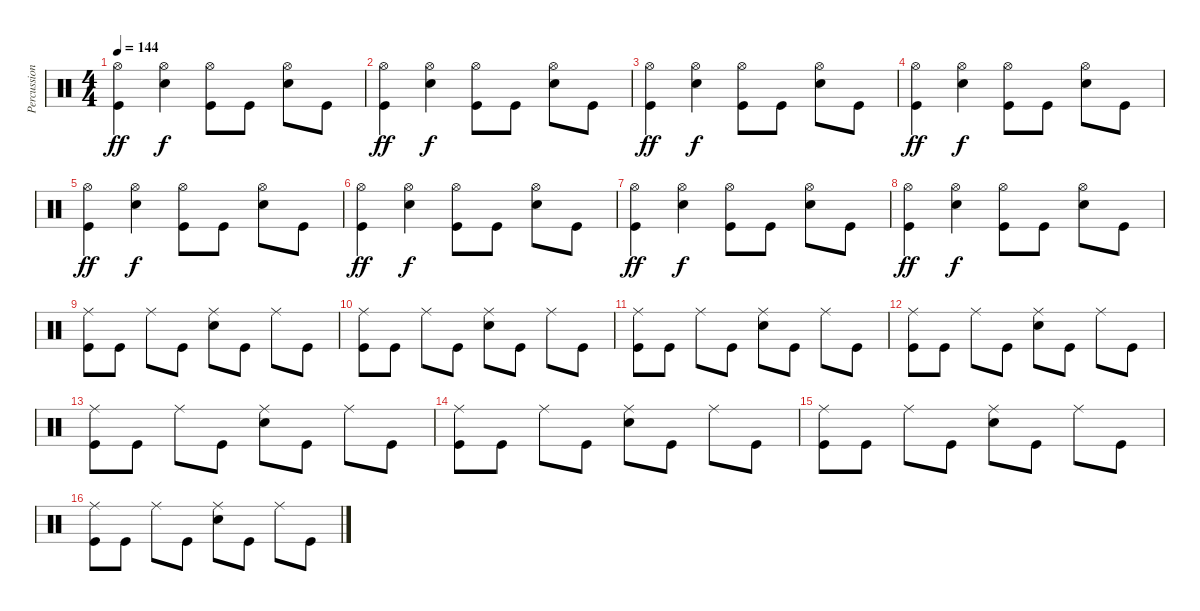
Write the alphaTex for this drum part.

\track ("Percussion" "Percussion") {instrument percussion}
\staff {score}
\articulation defaults
\ts (4 4)
\tempo 144
\clef neutral
\ks c
("Hi-Hat (open)" "Kick (hit)").4{dy ff} ("Hi-Hat (open)" "Snare (hit) 2").4{dy f} ("Hi-Hat (open)" "Kick (hit)").8 "Kick (hit)".8 ("Hi-Hat (open)" "Snare (hit) 2").8 "Kick (hit)".8 |
("Hi-Hat (open)" "Kick (hit)").4{dy ff} ("Hi-Hat (open)" "Snare (hit) 2").4{dy f} ("Hi-Hat (open)" "Kick (hit)").8 "Kick (hit)".8 ("Hi-Hat (open)" "Snare (hit) 2").8 "Kick (hit)".8 |
("Hi-Hat (open)" "Kick (hit)").4{dy ff} ("Hi-Hat (open)" "Snare (hit) 2").4{dy f} ("Hi-Hat (open)" "Kick (hit)").8 "Kick (hit)".8 ("Hi-Hat (open)" "Snare (hit) 2").8 "Kick (hit)".8 |
("Hi-Hat (open)" "Kick (hit)").4{dy ff} ("Hi-Hat (open)" "Snare (hit) 2").4{dy f} ("Hi-Hat (open)" "Kick (hit)").8 "Kick (hit)".8 ("Hi-Hat (open)" "Snare (hit) 2").8 "Kick (hit)".8 |
("Hi-Hat (open)" "Kick (hit)").4{dy ff} ("Hi-Hat (open)" "Snare (hit) 2").4{dy f} ("Hi-Hat (open)" "Kick (hit)").8 "Kick (hit)".8 ("Hi-Hat (open)" "Snare (hit) 2").8 "Kick (hit)".8 |
("Hi-Hat (open)" "Kick (hit)").4{dy ff} ("Hi-Hat (open)" "Snare (hit) 2").4{dy f} ("Hi-Hat (open)" "Kick (hit)").8 "Kick (hit)".8 ("Hi-Hat (open)" "Snare (hit) 2").8 "Kick (hit)".8 |
("Hi-Hat (open)" "Kick (hit)").4{dy ff} ("Hi-Hat (open)" "Snare (hit) 2").4{dy f} ("Hi-Hat (open)" "Kick (hit)").8 "Kick (hit)".8 ("Hi-Hat (open)" "Snare (hit) 2").8 "Kick (hit)".8 |
("Hi-Hat (open)" "Kick (hit)").4{dy ff} ("Hi-Hat (open)" "Snare (hit) 2").4{dy f} ("Hi-Hat (open)" "Kick (hit)").8 "Kick (hit)".8 ("Hi-Hat (open)" "Snare (hit) 2").8 "Kick (hit)".8 |
("Ride (middle)" "Kick (hit)").8 "Kick (hit)".8 "Ride (middle)".8 "Kick (hit)".8 ("Ride (middle)" "Snare (hit) 2").8 "Kick (hit)".8 "Ride (middle)".8 "Kick (hit)".8 |
("Ride (middle)" "Kick (hit)").8 "Kick (hit)".8 "Ride (middle)".8 "Kick (hit)".8 ("Ride (middle)" "Snare (hit) 2").8 "Kick (hit)".8 "Ride (middle)".8 "Kick (hit)".8 |
("Ride (middle)" "Kick (hit)").8 "Kick (hit)".8 "Ride (middle)".8 "Kick (hit)".8 ("Ride (middle)" "Snare (hit) 2").8 "Kick (hit)".8 "Ride (middle)".8 "Kick (hit)".8 |
("Ride (middle)" "Kick (hit)").8 "Kick (hit)".8 "Ride (middle)".8 "Kick (hit)".8 ("Ride (middle)" "Snare (hit) 2").8 "Kick (hit)".8 "Ride (middle)".8 "Kick (hit)".8 |
("Ride (middle)" "Kick (hit)").8 "Kick (hit)".8 "Ride (middle)".8 "Kick (hit)".8 ("Ride (middle)" "Snare (hit) 2").8 "Kick (hit)".8 "Ride (middle)".8 "Kick (hit)".8 |
("Ride (middle)" "Kick (hit)").8 "Kick (hit)".8 "Ride (middle)".8 "Kick (hit)".8 ("Ride (middle)" "Snare (hit) 2").8 "Kick (hit)".8 "Ride (middle)".8 "Kick (hit)".8 |
("Ride (middle)" "Kick (hit)").8 "Kick (hit)".8 "Ride (middle)".8 "Kick (hit)".8 ("Ride (middle)" "Snare (hit) 2").8 "Kick (hit)".8 "Ride (middle)".8 "Kick (hit)".8 |
("Ride (middle)" "Kick (hit)").8 "Kick (hit)".8 "Ride (middle)".8 "Kick (hit)".8 ("Ride (middle)" "Snare (hit) 2").8 "Kick (hit)".8 "Ride (middle)".8 "Kick (hit)".8
